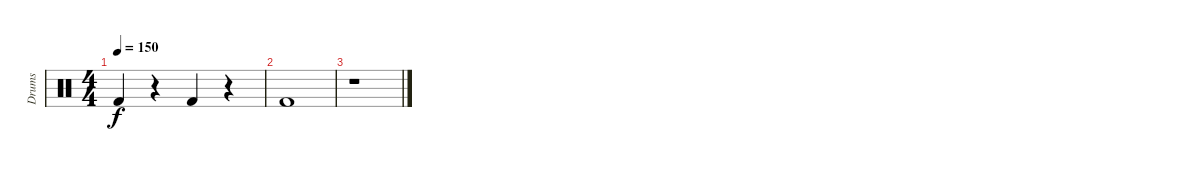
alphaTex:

\track ("Drums" "Drums") {instrument percussion}
\staff {score}
\articulation defaults
\ts (4 4)
\tempo 150
\clef neutral
\ks c "Kick (hit) 2".4{dy f}
r.4 "Kick (hit) 2".4 r.4 |
"Kick (hit) 2".1 |
r.1
